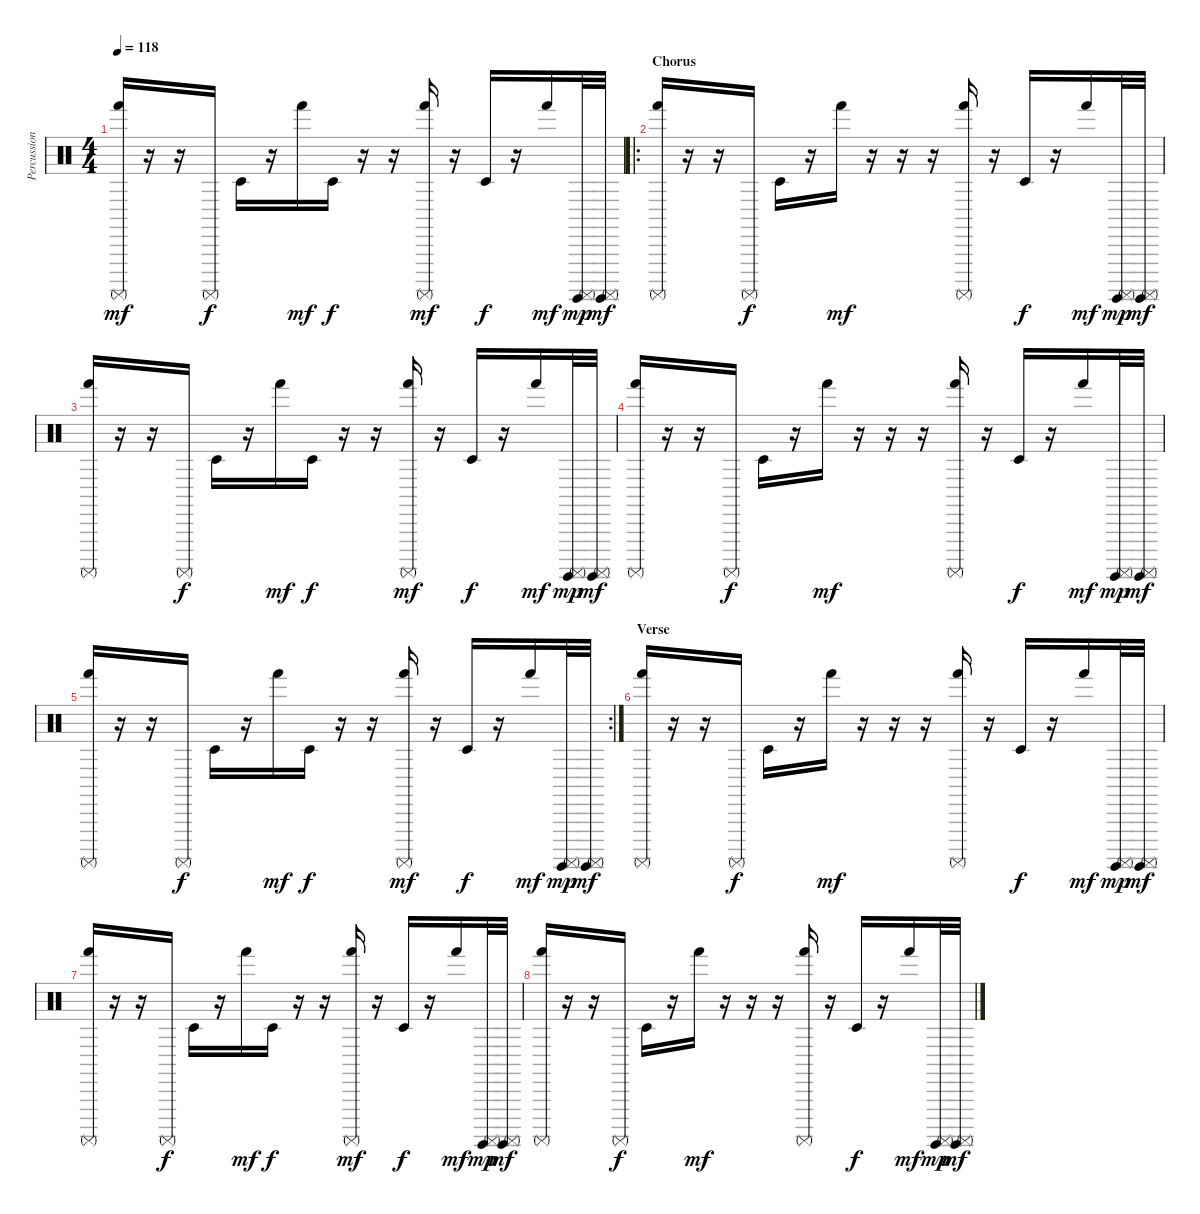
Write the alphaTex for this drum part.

\track ("Percussion" "Percussion") {instrument percussion}
\staff {score}
\articulation defaults
\ts (4 4)
\tempo 118
\clef neutral
\ks c
("Hand (hit)" "Surdo (mute)").16{dy mf} r.16 r.16 "Surdo (mute)".16{dy f} "Timbale low (hit)".16 r.16 "Hand (hit)".16{dy mf} "Timbale low (hit)".16{dy f} r.16 r.16 ("Hand (hit)" "Surdo (mute)").16{dy mf} r.16 "Timbale low (hit)".16{dy f} r.16 "Hand (hit)".16{dy mf} ("Surdo (hit)" "Surdo (mute)").32{dy mp} ("Surdo (hit)" "Surdo (mute)").32{dy mf} |
\ro
\section ("" "Chorus")
("Hand (hit)" "Surdo (mute)").16 r.16 r.16 "Surdo (mute)".16{dy f} "Timbale low (hit)".16 r.16 "Hand (hit)".16{dy mf} r.16 r.16 r.16 ("Hand (hit)" "Surdo (mute)").16 r.16 "Timbale low (hit)".16{dy f} r.16 "Hand (hit)".16{dy mf} ("Surdo (hit)" "Surdo (mute)").32{dy mp} ("Surdo (hit)" "Surdo (mute)").32{dy mf} |
("Hand (hit)" "Surdo (mute)").16 r.16 r.16 "Surdo (mute)".16{dy f} "Timbale low (hit)".16 r.16 "Hand (hit)".16{dy mf} "Timbale low (hit)".16{dy f} r.16 r.16 ("Hand (hit)" "Surdo (mute)").16{dy mf} r.16 "Timbale low (hit)".16{dy f} r.16 "Hand (hit)".16{dy mf} ("Surdo (hit)" "Surdo (mute)").32{dy mp} ("Surdo (hit)" "Surdo (mute)").32{dy mf} |
("Hand (hit)" "Surdo (mute)").16 r.16 r.16 "Surdo (mute)".16{dy f} "Timbale low (hit)".16 r.16 "Hand (hit)".16{dy mf} r.16 r.16 r.16 ("Hand (hit)" "Surdo (mute)").16 r.16 "Timbale low (hit)".16{dy f} r.16 "Hand (hit)".16{dy mf} ("Surdo (hit)" "Surdo (mute)").32{dy mp} ("Surdo (hit)" "Surdo (mute)").32{dy mf} |
\rc 2
("Hand (hit)" "Surdo (mute)").16 r.16 r.16 "Surdo (mute)".16{dy f} "Timbale low (hit)".16 r.16 "Hand (hit)".16{dy mf} "Timbale low (hit)".16{dy f} r.16 r.16 ("Hand (hit)" "Surdo (mute)").16{dy mf} r.16 "Timbale low (hit)".16{dy f} r.16 "Hand (hit)".16{dy mf} ("Surdo (hit)" "Surdo (mute)").32{dy mp} ("Surdo (hit)" "Surdo (mute)").32{dy mf} |
\section ("" "Verse")
("Hand (hit)" "Surdo (mute)").16 r.16 r.16 "Surdo (mute)".16{dy f} "Timbale low (hit)".16 r.16 "Hand (hit)".16{dy mf} r.16 r.16 r.16 ("Hand (hit)" "Surdo (mute)").16 r.16 "Timbale low (hit)".16{dy f} r.16 "Hand (hit)".16{dy mf} ("Surdo (hit)" "Surdo (mute)").32{dy mp} ("Surdo (hit)" "Surdo (mute)").32{dy mf} |
("Hand (hit)" "Surdo (mute)").16 r.16 r.16 "Surdo (mute)".16{dy f} "Timbale low (hit)".16 r.16 "Hand (hit)".16{dy mf} "Timbale low (hit)".16{dy f} r.16 r.16 ("Hand (hit)" "Surdo (mute)").16{dy mf} r.16 "Timbale low (hit)".16{dy f} r.16 "Hand (hit)".16{dy mf} ("Surdo (hit)" "Surdo (mute)").32{dy mp} ("Surdo (hit)" "Surdo (mute)").32{dy mf} |
("Hand (hit)" "Surdo (mute)").16 r.16 r.16 "Surdo (mute)".16{dy f} "Timbale low (hit)".16 r.16 "Hand (hit)".16{dy mf} r.16 r.16 r.16 ("Hand (hit)" "Surdo (mute)").16 r.16 "Timbale low (hit)".16{dy f} r.16 "Hand (hit)".16{dy mf} ("Surdo (hit)" "Surdo (mute)").32{dy mp} ("Surdo (hit)" "Surdo (mute)").32{dy mf}
